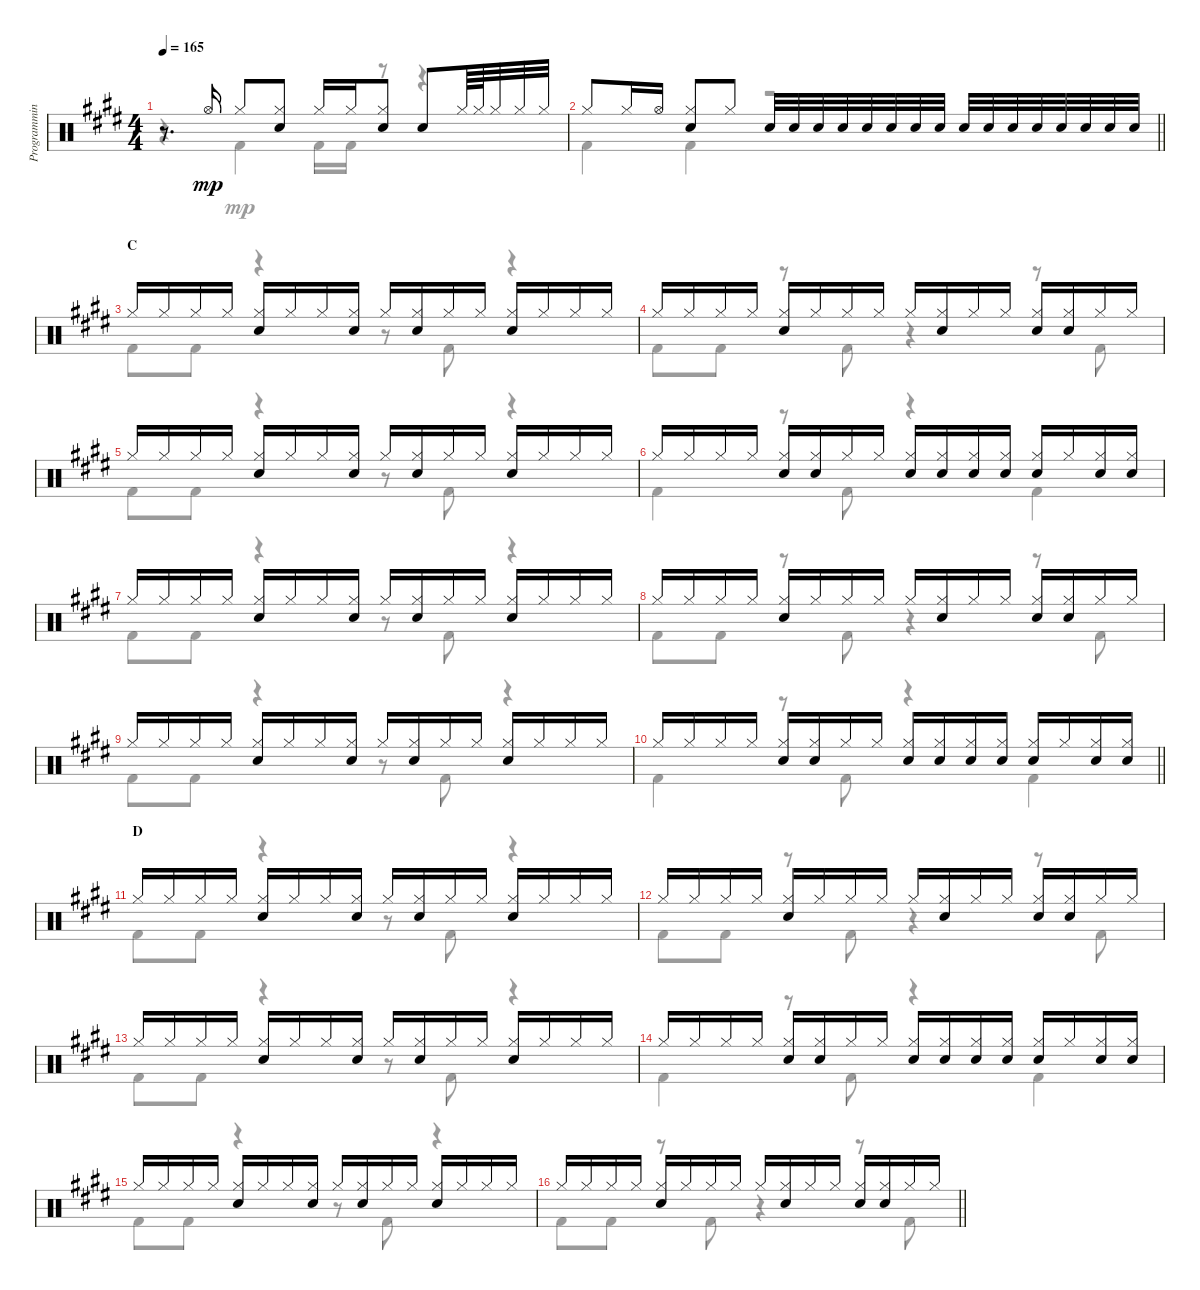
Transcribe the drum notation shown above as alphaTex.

\track ("Programming I" "Programmin") {instrument percussion}
\staff {score}
\articulation defaults
\voice
\ts (4 4)
\tempo 165
\clef neutral
\ks e
r.8{d dy mp} "Hi-Hat (open)".16 "Hi-Hat (closed)".8 ("Hi-Hat (closed)" "Electric Snare (hit)").8 "Hi-Hat (closed)".16 "Hi-Hat (closed)".16 ("Hi-Hat (closed)" "Electric Snare (hit)").8 "Electric Snare (hit)".8 "Hi-Hat (closed)".64 "Hi-Hat (closed)".64 "Hi-Hat (closed)".32 "Hi-Hat (closed)".32 "Hi-Hat (closed)".32 |
\barLineRight lightlight "Hi-Hat (closed)".8 "Hi-Hat (closed)".16 "Hi-Hat (open)".16
("Hi-Hat (closed)" "Electric Snare (hit)").8 "Hi-Hat (closed)".8 "Electric Snare (hit)".32 "Electric Snare (hit)".32 "Electric Snare (hit)".32 "Electric Snare (hit)".32 "Electric Snare (hit)".32 "Electric Snare (hit)".32 "Electric Snare (hit)".32 "Electric Snare (hit)".32 "Electric Snare (hit)".32 "Electric Snare (hit)".32 "Electric Snare (hit)".32 "Electric Snare (hit)".32 "Electric Snare (hit)".32 "Electric Snare (hit)".32 "Electric Snare (hit)".32 "Electric Snare (hit)".32 |
\section ("" "C")
"Hi-Hat (closed)".16 "Hi-Hat (closed)".16 "Hi-Hat (closed)".16 "Hi-Hat (closed)".16 ("Hi-Hat (closed)" "Electric Snare (hit)").16 "Hi-Hat (closed)".16 "Hi-Hat (closed)".16 ("Hi-Hat (closed)" "Electric Snare (hit)").16 "Hi-Hat (closed)".16 ("Hi-Hat (closed)" "Electric Snare (hit)").16 "Hi-Hat (closed)".16 "Hi-Hat (closed)".16 ("Hi-Hat (closed)" "Electric Snare (hit)").16 "Hi-Hat (closed)".16 "Hi-Hat (closed)".16 "Hi-Hat (closed)".16 |
"Hi-Hat (closed)".16 "Hi-Hat (closed)".16 "Hi-Hat (closed)".16 "Hi-Hat (closed)".16 ("Hi-Hat (closed)" "Electric Snare (hit)").16 "Hi-Hat (closed)".16 "Hi-Hat (closed)".16 "Hi-Hat (closed)".16 "Hi-Hat (closed)".16 ("Hi-Hat (closed)" "Electric Snare (hit)").16 "Hi-Hat (closed)".16 "Hi-Hat (closed)".16 ("Hi-Hat (closed)" "Electric Snare (hit)").16 ("Hi-Hat (closed)" "Electric Snare (hit)").16 "Hi-Hat (closed)".16 "Hi-Hat (closed)".16 |
"Hi-Hat (closed)".16 "Hi-Hat (closed)".16 "Hi-Hat (closed)".16 "Hi-Hat (closed)".16 ("Hi-Hat (closed)" "Electric Snare (hit)").16 "Hi-Hat (closed)".16 "Hi-Hat (closed)".16 ("Hi-Hat (closed)" "Electric Snare (hit)").16 "Hi-Hat (closed)".16 ("Hi-Hat (closed)" "Electric Snare (hit)").16 "Hi-Hat (closed)".16 "Hi-Hat (closed)".16 ("Hi-Hat (closed)" "Electric Snare (hit)").16 "Hi-Hat (closed)".16 "Hi-Hat (closed)".16 "Hi-Hat (closed)".16 |
"Hi-Hat (closed)".16 "Hi-Hat (closed)".16 "Hi-Hat (closed)".16 "Hi-Hat (closed)".16 ("Hi-Hat (closed)" "Electric Snare (hit)").16 ("Hi-Hat (closed)" "Electric Snare (hit)").16 "Hi-Hat (closed)".16 "Hi-Hat (closed)".16 ("Hi-Hat (closed)" "Electric Snare (hit)").16 ("Hi-Hat (closed)" "Electric Snare (hit)").16 ("Hi-Hat (closed)" "Electric Snare (hit)").16 ("Hi-Hat (closed)" "Electric Snare (hit)").16 ("Hi-Hat (closed)" "Electric Snare (hit)").16 "Hi-Hat (closed)".16 ("Hi-Hat (closed)" "Electric Snare (hit)").16 ("Hi-Hat (closed)" "Electric Snare (hit)").16 |
"Hi-Hat (closed)".16 "Hi-Hat (closed)".16 "Hi-Hat (closed)".16 "Hi-Hat (closed)".16 ("Hi-Hat (closed)" "Electric Snare (hit)").16 "Hi-Hat (closed)".16 "Hi-Hat (closed)".16 ("Hi-Hat (closed)" "Electric Snare (hit)").16 "Hi-Hat (closed)".16 ("Hi-Hat (closed)" "Electric Snare (hit)").16 "Hi-Hat (closed)".16 "Hi-Hat (closed)".16 ("Hi-Hat (closed)" "Electric Snare (hit)").16 "Hi-Hat (closed)".16 "Hi-Hat (closed)".16 "Hi-Hat (closed)".16 |
"Hi-Hat (closed)".16 "Hi-Hat (closed)".16 "Hi-Hat (closed)".16 "Hi-Hat (closed)".16 ("Hi-Hat (closed)" "Electric Snare (hit)").16 "Hi-Hat (closed)".16 "Hi-Hat (closed)".16 "Hi-Hat (closed)".16 "Hi-Hat (closed)".16 ("Hi-Hat (closed)" "Electric Snare (hit)").16 "Hi-Hat (closed)".16 "Hi-Hat (closed)".16 ("Hi-Hat (closed)" "Electric Snare (hit)").16 ("Hi-Hat (closed)" "Electric Snare (hit)").16 "Hi-Hat (closed)".16 "Hi-Hat (closed)".16 |
"Hi-Hat (closed)".16 "Hi-Hat (closed)".16 "Hi-Hat (closed)".16 "Hi-Hat (closed)".16 ("Hi-Hat (closed)" "Electric Snare (hit)").16 "Hi-Hat (closed)".16 "Hi-Hat (closed)".16 ("Hi-Hat (closed)" "Electric Snare (hit)").16 "Hi-Hat (closed)".16 ("Hi-Hat (closed)" "Electric Snare (hit)").16 "Hi-Hat (closed)".16 "Hi-Hat (closed)".16 ("Hi-Hat (closed)" "Electric Snare (hit)").16 "Hi-Hat (closed)".16 "Hi-Hat (closed)".16 "Hi-Hat (closed)".16 |
\barLineRight lightlight "Hi-Hat (closed)".16 "Hi-Hat (closed)".16 "Hi-Hat (closed)".16 "Hi-Hat (closed)".16
("Hi-Hat (closed)" "Electric Snare (hit)").16 ("Hi-Hat (closed)" "Electric Snare (hit)").16 "Hi-Hat (closed)".16 "Hi-Hat (closed)".16 ("Hi-Hat (closed)" "Electric Snare (hit)").16 ("Hi-Hat (closed)" "Electric Snare (hit)").16 ("Hi-Hat (closed)" "Electric Snare (hit)").16 ("Hi-Hat (closed)" "Electric Snare (hit)").16 ("Hi-Hat (closed)" "Electric Snare (hit)").16 "Hi-Hat (closed)".16 ("Hi-Hat (closed)" "Electric Snare (hit)").16 ("Hi-Hat (closed)" "Electric Snare (hit)").16 |
\section ("" "D")
"Hi-Hat (closed)".16 "Hi-Hat (closed)".16 "Hi-Hat (closed)".16 "Hi-Hat (closed)".16 ("Hi-Hat (closed)" "Electric Snare (hit)").16 "Hi-Hat (closed)".16 "Hi-Hat (closed)".16 ("Hi-Hat (closed)" "Electric Snare (hit)").16 "Hi-Hat (closed)".16 ("Hi-Hat (closed)" "Electric Snare (hit)").16 "Hi-Hat (closed)".16 "Hi-Hat (closed)".16 ("Hi-Hat (closed)" "Electric Snare (hit)").16 "Hi-Hat (closed)".16 "Hi-Hat (closed)".16 "Hi-Hat (closed)".16 |
"Hi-Hat (closed)".16 "Hi-Hat (closed)".16 "Hi-Hat (closed)".16 "Hi-Hat (closed)".16 ("Hi-Hat (closed)" "Electric Snare (hit)").16 "Hi-Hat (closed)".16 "Hi-Hat (closed)".16 "Hi-Hat (closed)".16 "Hi-Hat (closed)".16 ("Hi-Hat (closed)" "Electric Snare (hit)").16 "Hi-Hat (closed)".16 "Hi-Hat (closed)".16 ("Hi-Hat (closed)" "Electric Snare (hit)").16 ("Hi-Hat (closed)" "Electric Snare (hit)").16 "Hi-Hat (closed)".16 "Hi-Hat (closed)".16 |
"Hi-Hat (closed)".16 "Hi-Hat (closed)".16 "Hi-Hat (closed)".16 "Hi-Hat (closed)".16 ("Hi-Hat (closed)" "Electric Snare (hit)").16 "Hi-Hat (closed)".16 "Hi-Hat (closed)".16 ("Hi-Hat (closed)" "Electric Snare (hit)").16 "Hi-Hat (closed)".16 ("Hi-Hat (closed)" "Electric Snare (hit)").16 "Hi-Hat (closed)".16 "Hi-Hat (closed)".16 ("Hi-Hat (closed)" "Electric Snare (hit)").16 "Hi-Hat (closed)".16 "Hi-Hat (closed)".16 "Hi-Hat (closed)".16 |
"Hi-Hat (closed)".16 "Hi-Hat (closed)".16 "Hi-Hat (closed)".16 "Hi-Hat (closed)".16 ("Hi-Hat (closed)" "Electric Snare (hit)").16 ("Hi-Hat (closed)" "Electric Snare (hit)").16 "Hi-Hat (closed)".16 "Hi-Hat (closed)".16 ("Hi-Hat (closed)" "Electric Snare (hit)").16 ("Hi-Hat (closed)" "Electric Snare (hit)").16 ("Hi-Hat (closed)" "Electric Snare (hit)").16 ("Hi-Hat (closed)" "Electric Snare (hit)").16 ("Hi-Hat (closed)" "Electric Snare (hit)").16 "Hi-Hat (closed)".16 ("Hi-Hat (closed)" "Electric Snare (hit)").16 ("Hi-Hat (closed)" "Electric Snare (hit)").16 |
"Hi-Hat (closed)".16 "Hi-Hat (closed)".16 "Hi-Hat (closed)".16 "Hi-Hat (closed)".16 ("Hi-Hat (closed)" "Electric Snare (hit)").16 "Hi-Hat (closed)".16 "Hi-Hat (closed)".16 ("Hi-Hat (closed)" "Electric Snare (hit)").16 "Hi-Hat (closed)".16 ("Hi-Hat (closed)" "Electric Snare (hit)").16 "Hi-Hat (closed)".16 "Hi-Hat (closed)".16 ("Hi-Hat (closed)" "Electric Snare (hit)").16 "Hi-Hat (closed)".16 "Hi-Hat (closed)".16 "Hi-Hat (closed)".16 |
\barLineRight lightlight "Hi-Hat (closed)".16 "Hi-Hat (closed)".16 "Hi-Hat (closed)".16 "Hi-Hat (closed)".16
("Hi-Hat (closed)" "Electric Snare (hit)").16 "Hi-Hat (closed)".16 "Hi-Hat (closed)".16 "Hi-Hat (closed)".16 "Hi-Hat (closed)".16 ("Hi-Hat (closed)" "Electric Snare (hit)").16 "Hi-Hat (closed)".16 "Hi-Hat (closed)".16 ("Hi-Hat (closed)" "Electric Snare (hit)").16 ("Hi-Hat (closed)" "Electric Snare (hit)").16 "Hi-Hat (closed)".16 "Hi-Hat (closed)".16
\voice
\clef neutral
\ottava regular
\simile none
\ks e
r.4{dy mp} "Kick (hit) 2".4 "Kick (hit) 2".16 "Kick (hit) 2".16 r.8 r.4 |
\barLineRight lightlight "Kick (hit) 2".4 "Kick (hit) 2".4
r.2 |
"Kick (hit) 2".8 "Kick (hit) 2".8 r.4 r.8 "Kick (hit) 2".8 r.4 |
"Kick (hit) 2".8 "Kick (hit) 2".8 r.8 "Kick (hit) 2".8 r.4 r.8 "Kick (hit) 2".8 |
"Kick (hit) 2".8 "Kick (hit) 2".8 r.4 r.8 "Kick (hit) 2".8 r.4 |
"Kick (hit) 2".4 r.8 "Kick (hit) 2".8 r.4 "Kick (hit) 2".4 |
"Kick (hit) 2".8 "Kick (hit) 2".8 r.4 r.8 "Kick (hit) 2".8 r.4 |
"Kick (hit) 2".8 "Kick (hit) 2".8 r.8 "Kick (hit) 2".8 r.4 r.8 "Kick (hit) 2".8 |
"Kick (hit) 2".8 "Kick (hit) 2".8 r.4 r.8 "Kick (hit) 2".8 r.4 |
\barLineRight lightlight "Kick (hit) 2".4
r.8 "Kick (hit) 2".8 r.4 "Kick (hit) 2".4 |
"Kick (hit) 2".8 "Kick (hit) 2".8 r.4 r.8 "Kick (hit) 2".8 r.4 |
"Kick (hit) 2".8 "Kick (hit) 2".8 r.8 "Kick (hit) 2".8 r.4 r.8 "Kick (hit) 2".8 |
"Kick (hit) 2".8 "Kick (hit) 2".8 r.4 r.8 "Kick (hit) 2".8 r.4 |
"Kick (hit) 2".4 r.8 "Kick (hit) 2".8 r.4 "Kick (hit) 2".4 |
"Kick (hit) 2".8 "Kick (hit) 2".8 r.4 r.8 "Kick (hit) 2".8 r.4 |
\barLineRight lightlight "Kick (hit) 2".8 "Kick (hit) 2".8
r.8 "Kick (hit) 2".8 r.4 r.8 "Kick (hit) 2".8
